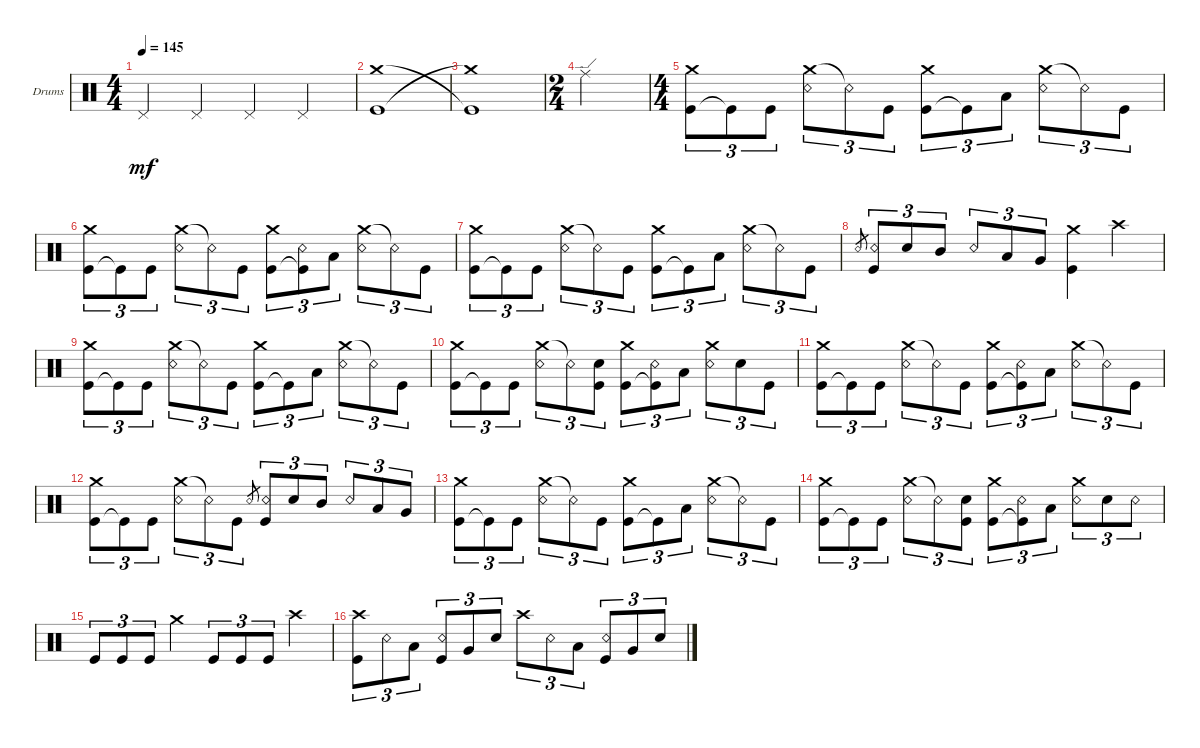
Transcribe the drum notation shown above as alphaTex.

\defaultSystemsLayout 4
\bracketExtendMode groupsimilarinstruments
\firstSystemTrackNameOrientation horizontal
\otherSystemsTrackNameOrientation horizontal
\track ("Drums" "Drums") {instrument percussion}
\staff {score}
\articulation defaults
\ts (4 4)
\tempo 145
\clef neutral
\ks c "Pedal Hi-Hat (hit)".4{dy mf} "Pedal Hi-Hat (hit)".4 "Pedal Hi-Hat (hit)".4 "Pedal Hi-Hat (hit)".4
|
("Kick (hit)" "Crash medium (hit)").1 |
("Crash medium (hit)"{t} "Kick (hit)"{t}).1 |
\ts (2 4)
"Ride (edge)".2 |
\ts (4 4)
("Kick (hit)" "Crash medium (hit)").8{tu (3 2)} "Kick (hit)"{t}.8{tu (3 2)} "Kick (hit)".8{tu (3 2)} ("Crash medium (hit)" "Snare (rim shot)").8{tu (3 2)} "Snare (rim shot)"{t}.8{tu (3 2)} "Kick (hit)".8{tu (3 2)} ("Kick (hit)" "Crash medium (hit)").8{tu (3 2)} "Kick (hit)"{t}.8{tu (3 2)} "Low Tom (hit)".8{tu (3 2)} ("Crash medium (hit)" "Snare (rim shot)").8{tu (3 2)} "Snare (rim shot)"{t}.8{tu (3 2)} "Kick (hit)".8{tu (3 2)} |
("Kick (hit)" "Crash medium (hit)").8{tu (3 2)} "Kick (hit)"{t}.8{tu (3 2)} "Kick (hit)".8{tu (3 2)} ("Crash medium (hit)" "Snare (rim shot)").8{tu (3 2)} "Snare (rim shot)"{t}.8{tu (3 2)} "Kick (hit)".8{tu (3 2)} ("Kick (hit)" "Crash medium (hit)").8{tu (3 2)} ("Kick (hit)"{t} "Snare (rim shot)").8{tu (3 2)} "Low Tom (hit)".8{tu (3 2)} ("Crash medium (hit)" "Snare (rim shot)").8{tu (3 2)} "Snare (rim shot)"{t}.8{tu (3 2)} "Kick (hit)".8{tu (3 2)} |
("Kick (hit)" "Crash medium (hit)").8{tu (3 2)} "Kick (hit)"{t}.8{tu (3 2)} "Kick (hit)".8{tu (3 2)} ("Crash medium (hit)" "Snare (rim shot)").8{tu (3 2)} "Snare (rim shot)"{t}.8{tu (3 2)} "Kick (hit)".8{tu (3 2)} ("Kick (hit)" "Crash medium (hit)").8{tu (3 2)} "Kick (hit)"{t}.8{tu (3 2)} "Low Tom (hit)".8{tu (3 2)} ("Crash medium (hit)" "Snare (rim shot)").8{tu (3 2)} "Snare (rim shot)"{t}.8{tu (3 2)} "Kick (hit)".8{tu (3 2)} |
"Snare (rim shot)".8{gr} ("Kick (hit)" "Snare (rim shot)").8{tu (3 2)} "Snare (hit) 2".8{tu (3 2)} "Mid Tom (hit)".8{tu (3 2)} "Snare (rim shot)".8{tu (3 2)} "Low Tom (hit)".8{tu (3 2)} "Very Low Tom (hit)".8{tu (3 2)} ("Kick (hit)" "Crash medium (hit)").4 "Crash high (hit)".4 |
("Kick (hit)" "Crash medium (hit)").8{tu (3 2)} "Kick (hit)"{t}.8{tu (3 2)} "Kick (hit)".8{tu (3 2)} ("Crash medium (hit)" "Snare (rim shot)").8{tu (3 2)} "Snare (rim shot)"{t}.8{tu (3 2)} "Kick (hit)".8{tu (3 2)} ("Kick (hit)" "Crash medium (hit)").8{tu (3 2)} "Kick (hit)"{t}.8{tu (3 2)} "Low Tom (hit)".8{tu (3 2)} ("Crash medium (hit)" "Snare (rim shot)").8{tu (3 2)} "Snare (rim shot)"{t}.8{tu (3 2)} "Kick (hit)".8{tu (3 2)} |
("Kick (hit)" "Crash medium (hit)").8{tu (3 2)} "Kick (hit)"{t}.8{tu (3 2)} "Kick (hit)".8{tu (3 2)} ("Crash medium (hit)" "Snare (rim shot)").8{tu (3 2)} "Snare (rim shot)"{t}.8{tu (3 2)} ("Kick (hit)" "Snare (hit) 2").8{tu (3 2)} ("Kick (hit)" "Crash medium (hit)").8{tu (3 2)} ("Kick (hit)"{t} "Snare (rim shot)").8{tu (3 2)} "Low Tom (hit)".8{tu (3 2)} ("Crash medium (hit)" "Snare (rim shot)").8{tu (3 2)} "Snare (hit) 2".8{tu (3 2)} "Kick (hit)".8{tu (3 2)} |
("Kick (hit)" "Crash medium (hit)").8{tu (3 2)} "Kick (hit)"{t}.8{tu (3 2)} "Kick (hit)".8{tu (3 2)} ("Crash medium (hit)" "Snare (rim shot)").8{tu (3 2)} "Snare (rim shot)"{t}.8{tu (3 2)} "Kick (hit)".8{tu (3 2)} ("Kick (hit)" "Crash medium (hit)").8{tu (3 2)} ("Kick (hit)"{t} "Snare (rim shot)").8{tu (3 2)} "Low Tom (hit)".8{tu (3 2)} ("Crash medium (hit)" "Snare (rim shot)").8{tu (3 2)} "Snare (rim shot)"{t}.8{tu (3 2)} "Kick (hit)".8{tu (3 2)} |
("Kick (hit)" "Crash medium (hit)").8{tu (3 2)} "Kick (hit)"{t}.8{tu (3 2)} "Kick (hit)".8{tu (3 2)} ("Crash medium (hit)" "Snare (rim shot)").8{tu (3 2)} "Snare (rim shot)"{t}.8{tu (3 2)} "Kick (hit)".8{tu (3 2)} "Snare (rim shot)".8{gr} ("Kick (hit)" "Snare (rim shot)").8{tu (3 2)} "Snare (hit) 2".8{tu (3 2)} "Mid Tom (hit)".8{tu (3 2)} "Snare (rim shot)".8{tu (3 2)} "Low Tom (hit)".8{tu (3 2)} "Very Low Tom (hit)".8{tu (3 2)} |
("Kick (hit)" "Crash medium (hit)").8{tu (3 2)} "Kick (hit)"{t}.8{tu (3 2)} "Kick (hit)".8{tu (3 2)} ("Crash medium (hit)" "Snare (rim shot)").8{tu (3 2)} "Snare (rim shot)"{t}.8{tu (3 2)} "Kick (hit)".8{tu (3 2)} ("Kick (hit)" "Crash medium (hit)").8{tu (3 2)} "Kick (hit)"{t}.8{tu (3 2)} "Low Tom (hit)".8{tu (3 2)} ("Crash medium (hit)" "Snare (rim shot)").8{tu (3 2)} "Snare (rim shot)"{t}.8{tu (3 2)} "Kick (hit)".8{tu (3 2)} |
("Kick (hit)" "Crash medium (hit)").8{tu (3 2)} "Kick (hit)"{t}.8{tu (3 2)} "Kick (hit)".8{tu (3 2)} ("Crash medium (hit)" "Snare (rim shot)").8{tu (3 2)} "Snare (rim shot)"{t}.8{tu (3 2)} ("Kick (hit)" "Snare (hit) 2").8{tu (3 2)} ("Kick (hit)" "Crash medium (hit)").8{tu (3 2)} ("Kick (hit)"{t} "Snare (rim shot)").8{tu (3 2)} "Low Tom (hit)".8{tu (3 2)} ("Crash medium (hit)" "Snare (rim shot)").8{tu (3 2)} "Snare (hit) 2".8{tu (3 2)} "Snare (rim shot)".8{tu (3 2)} |
"Kick (hit)".8{tu (3 2)} "Kick (hit)".8{tu (3 2)} "Kick (hit)".8{tu (3 2)} "Crash medium (hit)".4 "Kick (hit)".8{tu (3 2)} "Kick (hit)".8{tu (3 2)} "Kick (hit)".8{tu (3 2)} "Crash high (hit)".4 |
("Kick (hit)" "Crash high (hit)").8{tu (3 2)} "Snare (rim shot)".8{tu (3 2)} "Low Tom (hit)".8{tu (3 2)} ("Kick (hit)" "Snare (rim shot)").8{tu (3 2)} "Very Low Tom (hit)".8{tu (3 2)} "Snare (hit) 2".8{tu (3 2)} "Crash high (hit)".8{tu (3 2)} "Snare (rim shot)".8{tu (3 2)} "Low Tom (hit)".8{tu (3 2)} ("Kick (hit)" "Snare (rim shot)").8{tu (3 2)} "Very Low Tom (hit)".8{tu (3 2)} "Snare (hit) 2".8{tu (3 2)}
